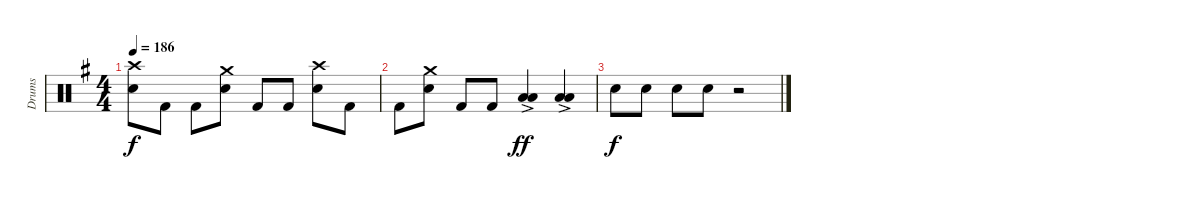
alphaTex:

\track ("Drums" "Drums") {instrument percussion}
\staff {score}
\articulation defaults
\ts (4 4)
\tempo 186
\clef neutral
\ks g
("Crash high (hit)" "Snare (hit) 2").8{dy f} "Kick (hit) 2".8 "Kick (hit) 2".8 ("Crash medium (hit)" "Snare (hit) 2").8 "Kick (hit) 2".8 "Kick (hit) 2".8 ("Crash high (hit)" "Snare (hit) 2").8 "Kick (hit) 2".8 |
"Kick (hit) 2".8 ("Crash medium (hit)" "Snare (hit) 2").8 "Kick (hit) 2".8 "Kick (hit) 2".8 ("Low Tom (hit)" "Low Floor Tom (hit)"{ac}).4{dy ff} ("Low Tom (hit)" "Low Floor Tom (hit)"{ac}).4 |
"Snare (hit) 2".8{dy f} "Snare (hit) 2".8 "Snare (hit) 2".8 "Snare (hit) 2".8 r.2
